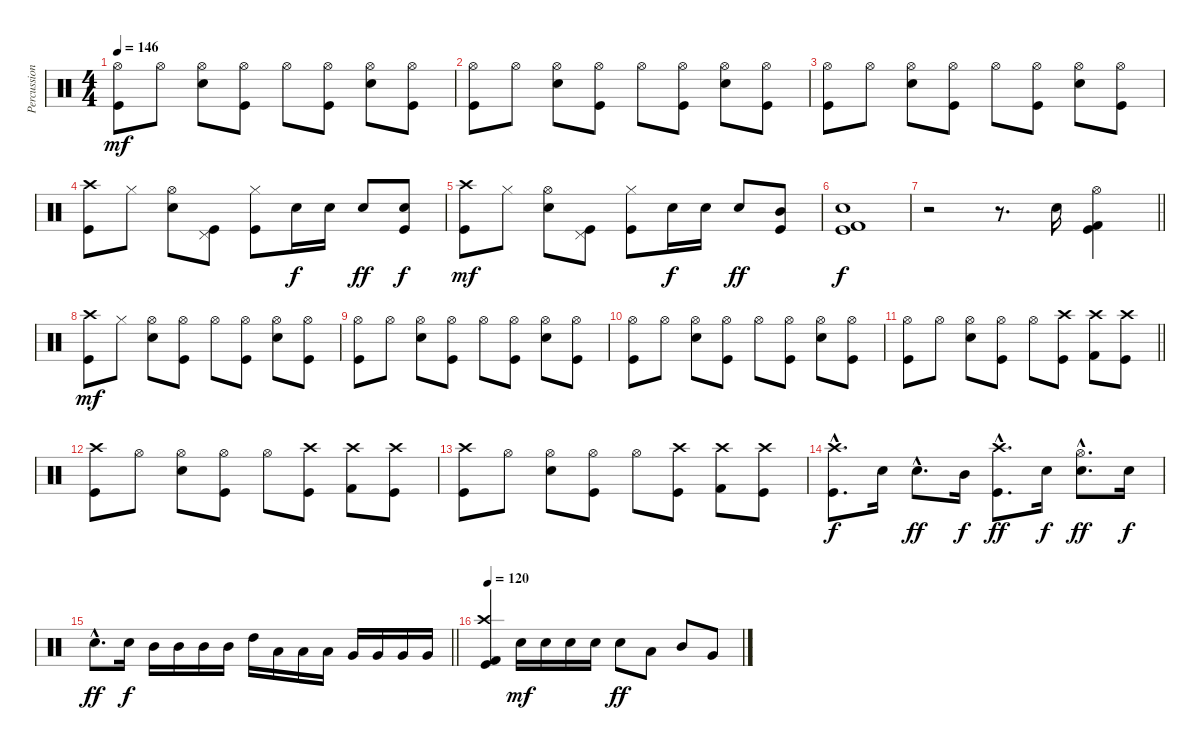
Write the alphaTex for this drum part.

\track ("Percussion" "Percussion") {instrument percussion}
\staff {score}
\articulation defaults
\ts (4 4)
\tempo 146
\clef neutral
\ks c
("Hi-Hat (open)" "Kick (hit)").8{dy mf} "Hi-Hat (open)".8 ("Hi-Hat (open)" "Snare (hit) 2").8 ("Hi-Hat (open)" "Kick (hit)").8 "Hi-Hat (open)".8 ("Hi-Hat (open)" "Kick (hit)").8 ("Hi-Hat (open)" "Snare (hit) 2").8 ("Hi-Hat (open)" "Kick (hit)").8 |
("Hi-Hat (open)" "Kick (hit)").8 "Hi-Hat (open)".8 ("Hi-Hat (open)" "Snare (hit) 2").8 ("Hi-Hat (open)" "Kick (hit)").8 "Hi-Hat (open)".8 ("Hi-Hat (open)" "Kick (hit)").8 ("Hi-Hat (open)" "Snare (hit) 2").8 ("Hi-Hat (open)" "Kick (hit)").8 |
("Hi-Hat (open)" "Kick (hit)").8 "Hi-Hat (open)".8 ("Hi-Hat (open)" "Snare (hit) 2").8 ("Hi-Hat (open)" "Kick (hit)").8 "Hi-Hat (open)".8 ("Hi-Hat (open)" "Kick (hit)").8 ("Hi-Hat (open)" "Snare (hit) 2").8 ("Hi-Hat (open)" "Kick (hit)").8 |
("Crash high (hit)" "Kick (hit)").8 "Hi-Hat (closed)".8 ("Hi-Hat (open)" "Snare (hit) 2").8 ("Pedal Hi-Hat (hit)" "Kick (hit)").8 ("Hi-Hat (closed)" "Kick (hit)").8 "Snare (hit) 2".16{dy f} "Snare (hit) 2".16 "Snare (hit) 2".8{dy ff} ("Snare (hit) 2" "Kick (hit)").8{dy f} |
("Crash high (hit)" "Kick (hit)").8{dy mf} "Hi-Hat (closed)".8 ("Hi-Hat (open)" "Snare (hit) 2").8 ("Pedal Hi-Hat (hit)" "Kick (hit)").8 ("Hi-Hat (closed)" "Kick (hit)").8 "Snare (hit) 2".16{dy f} "Snare (hit) 2".16 "Snare (hit) 2".8{dy ff} ("Mid Tom (hit)" "Kick (hit)").8 |
("Snare (hit) 2" "Kick (hit) 2" "Kick (hit)").1{dy f} |
\barLineRight lightlight
r.2 r.8{d} "Snare (hit) 2".16 ("Hi-Hat (open)" "Kick (hit) 2" "Kick (hit)").4 |
("Crash high (hit)" "Kick (hit)").8{dy mf} "Hi-Hat (closed)".8 ("Hi-Hat (open)" "Snare (hit) 2").8 ("Hi-Hat (open)" "Kick (hit)").8 "Hi-Hat (open)".8 ("Hi-Hat (open)" "Kick (hit)").8 ("Hi-Hat (open)" "Snare (hit) 2").8 ("Hi-Hat (open)" "Kick (hit)").8 |
("Hi-Hat (open)" "Kick (hit)").8 "Hi-Hat (open)".8 ("Hi-Hat (open)" "Snare (hit) 2").8 ("Hi-Hat (open)" "Kick (hit)").8 "Hi-Hat (open)".8 ("Hi-Hat (open)" "Kick (hit)").8 ("Hi-Hat (open)" "Snare (hit) 2").8 ("Hi-Hat (open)" "Kick (hit)").8 |
("Hi-Hat (open)" "Kick (hit)").8 "Hi-Hat (open)".8 ("Hi-Hat (open)" "Snare (hit) 2").8 ("Hi-Hat (open)" "Kick (hit)").8 "Hi-Hat (open)".8 ("Hi-Hat (open)" "Kick (hit)").8 ("Hi-Hat (open)" "Snare (hit) 2").8 ("Hi-Hat (open)" "Kick (hit)").8 |
\barLineRight lightlight
("Hi-Hat (open)" "Kick (hit)").8 "Hi-Hat (open)".8 ("Hi-Hat (open)" "Snare (hit) 2").8 ("Hi-Hat (open)" "Kick (hit)").8 "Hi-Hat (open)".8 ("Crash high (hit)" "Kick (hit)").8 ("Crash high (hit)" "Kick (hit) 2").8 ("Crash high (hit)" "Kick (hit)").8 |
("Crash high (hit)" "Kick (hit)").8 "Hi-Hat (open)".8 ("Hi-Hat (open)" "Snare (hit) 2").8 ("Hi-Hat (open)" "Kick (hit)").8 "Hi-Hat (open)".8 ("Crash high (hit)" "Kick (hit)").8 ("Crash high (hit)" "Kick (hit) 2").8 ("Crash high (hit)" "Kick (hit)").8 |
("Crash high (hit)" "Kick (hit)").8 "Hi-Hat (open)".8 ("Hi-Hat (open)" "Snare (hit) 2").8 ("Hi-Hat (open)" "Kick (hit)").8 "Hi-Hat (open)".8 ("Crash high (hit)" "Kick (hit)").8 ("Crash high (hit)" "Kick (hit) 2").8 ("Crash high (hit)" "Kick (hit)").8 |
("Crash high (hit)"{hac} "Kick (hit)"{hac}).8{d dy f} "Snare (hit) 2".16 "Snare (hit) 2"{hac}.8{d dy ff} "Mid Tom (hit)".16{dy f} ("Crash high (hit)"{hac} "Kick (hit)"{hac}).8{d dy ff} "Snare (hit) 2".16{dy f} ("Hi-Hat (open)"{hac} "Snare (hit) 2"{hac}).8{d dy ff} "Snare (hit) 2".16{dy f} |
\barLineRight lightlight "Snare (hit) 2"{hac}.8{d dy ff} "Snare (hit) 2".16{dy f} "Mid Tom (hit)".16 "Mid Tom (hit)".16 "Mid Tom (hit)".16 "Mid Tom (hit)".16 "High Tom (hit)".16 "Low Tom (hit)".16 "Low Tom (hit)".16 "Low Tom (hit)".16 "Very Low Tom (hit)".16 "Very Low Tom (hit)".16 "Very Low Tom (hit)".16 "Very Low Tom (hit)".16
|
\tempo 120
("Crash high (hit)" "Kick (hit) 2" "Kick (hit)").4 "Snare (hit) 2".16{dy mf} "Snare (hit) 2".16 "Snare (hit) 2".16 "Snare (hit) 2".16 "Snare (hit) 2".8{dy ff} "Low Tom (hit)".8 "Mid Tom (hit)".8 "Very Low Tom (hit)".8
